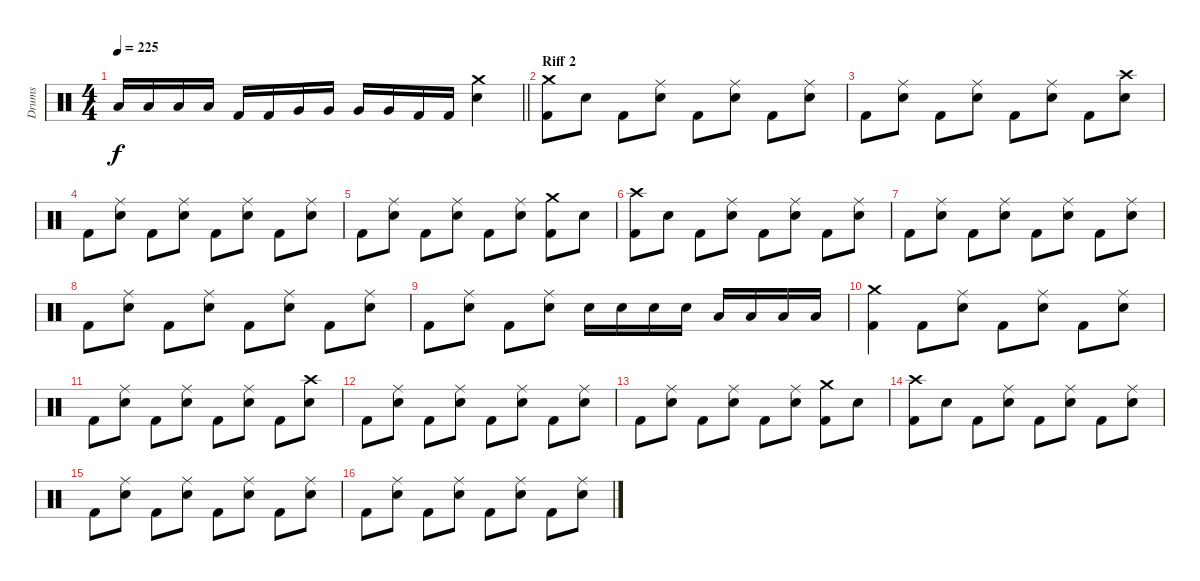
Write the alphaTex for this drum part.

\track ("Drums" "Drums") {instrument percussion}
\staff {score}
\articulation defaults
\ts (4 4)
\tempo 225
\clef neutral
\barLineRight lightlight
\ks c "Low Tom (hit)".16{dy f} "Low Tom (hit)".16 "Low Tom (hit)".16 "Low Tom (hit)".16 "Kick (hit) 2".16 "Kick (hit) 2".16 "Very Low Tom (hit)".16 "Very Low Tom (hit)".16 "Very Low Tom (hit)".16 "Very Low Tom (hit)".16 "Kick (hit) 2".16 "Kick (hit) 2".16
("Electric Snare (hit)" "Crash medium (hit)").4 |
\section ("" "Riff 2")
("Crash medium (hit)" "Kick (hit) 2").8 "Electric Snare (hit)".8 "Kick (hit) 2".8 ("Ride (middle)" "Electric Snare (hit)").8 "Kick (hit) 2".8 ("Ride (middle)" "Electric Snare (hit)").8 "Kick (hit) 2".8 ("Ride (middle)" "Electric Snare (hit)").8 |
"Kick (hit) 2".8 ("Ride (middle)" "Electric Snare (hit)").8 "Kick (hit) 2".8 ("Ride (middle)" "Electric Snare (hit)").8 "Kick (hit) 2".8 ("Ride (middle)" "Electric Snare (hit)").8 "Kick (hit) 2".8 ("Crash high (hit)" "Electric Snare (hit)").8 |
"Kick (hit) 2".8 ("Ride (middle)" "Electric Snare (hit)").8 "Kick (hit) 2".8 ("Ride (middle)" "Electric Snare (hit)").8 "Kick (hit) 2".8 ("Ride (middle)" "Electric Snare (hit)").8 "Kick (hit) 2".8 ("Ride (middle)" "Electric Snare (hit)").8 |
"Kick (hit) 2".8 ("Ride (middle)" "Electric Snare (hit)").8 "Kick (hit) 2".8 ("Ride (middle)" "Electric Snare (hit)").8 "Kick (hit) 2".8 ("Ride (middle)" "Electric Snare (hit)").8 ("Crash medium (hit)" "Kick (hit) 2").8 "Electric Snare (hit)".8 |
("Crash high (hit)" "Kick (hit) 2").8 "Electric Snare (hit)".8 "Kick (hit) 2".8 ("Ride (middle)" "Electric Snare (hit)").8 "Kick (hit) 2".8 ("Ride (middle)" "Electric Snare (hit)").8 "Kick (hit) 2".8 ("Ride (middle)" "Electric Snare (hit)").8 |
"Kick (hit) 2".8 ("Ride (middle)" "Electric Snare (hit)").8 "Kick (hit) 2".8 ("Ride (middle)" "Electric Snare (hit)").8 "Kick (hit) 2".8 ("Ride (middle)" "Electric Snare (hit)").8 "Kick (hit) 2".8 ("Ride (middle)" "Electric Snare (hit)").8 |
"Kick (hit) 2".8 ("Ride (middle)" "Electric Snare (hit)").8 "Kick (hit) 2".8 ("Ride (middle)" "Electric Snare (hit)").8 "Kick (hit) 2".8 ("Ride (middle)" "Electric Snare (hit)").8 "Kick (hit) 2".8 ("Ride (middle)" "Electric Snare (hit)").8 |
"Kick (hit) 2".8 ("Ride (middle)" "Electric Snare (hit)").8 "Kick (hit) 2".8 ("Ride (middle)" "Electric Snare (hit)").8 "Electric Snare (hit)".16 "Electric Snare (hit)".16 "Electric Snare (hit)".16 "Electric Snare (hit)".16 "Low Tom (hit)".16 "Low Tom (hit)".16 "Low Tom (hit)".16 "Low Tom (hit)".16 |
("Crash medium (hit)" "Kick (hit) 2").4 "Kick (hit) 2".8 ("Ride (middle)" "Electric Snare (hit)").8 "Kick (hit) 2".8 ("Ride (middle)" "Electric Snare (hit)").8 "Kick (hit) 2".8 ("Ride (middle)" "Electric Snare (hit)").8 |
"Kick (hit) 2".8 ("Ride (middle)" "Electric Snare (hit)").8 "Kick (hit) 2".8 ("Ride (middle)" "Electric Snare (hit)").8 "Kick (hit) 2".8 ("Ride (middle)" "Electric Snare (hit)").8 "Kick (hit) 2".8 ("Crash high (hit)" "Electric Snare (hit)").8 |
"Kick (hit) 2".8 ("Ride (middle)" "Electric Snare (hit)").8 "Kick (hit) 2".8 ("Ride (middle)" "Electric Snare (hit)").8 "Kick (hit) 2".8 ("Ride (middle)" "Electric Snare (hit)").8 "Kick (hit) 2".8 ("Ride (middle)" "Electric Snare (hit)").8 |
"Kick (hit) 2".8 ("Ride (middle)" "Electric Snare (hit)").8 "Kick (hit) 2".8 ("Ride (middle)" "Electric Snare (hit)").8 "Kick (hit) 2".8 ("Ride (middle)" "Electric Snare (hit)").8 ("Crash medium (hit)" "Kick (hit) 2").8 "Electric Snare (hit)".8 |
("Crash high (hit)" "Kick (hit) 2").8 "Electric Snare (hit)".8 "Kick (hit) 2".8 ("Ride (middle)" "Electric Snare (hit)").8 "Kick (hit) 2".8 ("Ride (middle)" "Electric Snare (hit)").8 "Kick (hit) 2".8 ("Ride (middle)" "Electric Snare (hit)").8 |
"Kick (hit) 2".8 ("Ride (middle)" "Electric Snare (hit)").8 "Kick (hit) 2".8 ("Ride (middle)" "Electric Snare (hit)").8 "Kick (hit) 2".8 ("Ride (middle)" "Electric Snare (hit)").8 "Kick (hit) 2".8 ("Ride (middle)" "Electric Snare (hit)").8 |
"Kick (hit) 2".8 ("Ride (middle)" "Electric Snare (hit)").8 "Kick (hit) 2".8 ("Ride (middle)" "Electric Snare (hit)").8 "Kick (hit) 2".8 ("Ride (middle)" "Electric Snare (hit)").8 "Kick (hit) 2".8 ("Ride (middle)" "Electric Snare (hit)").8
